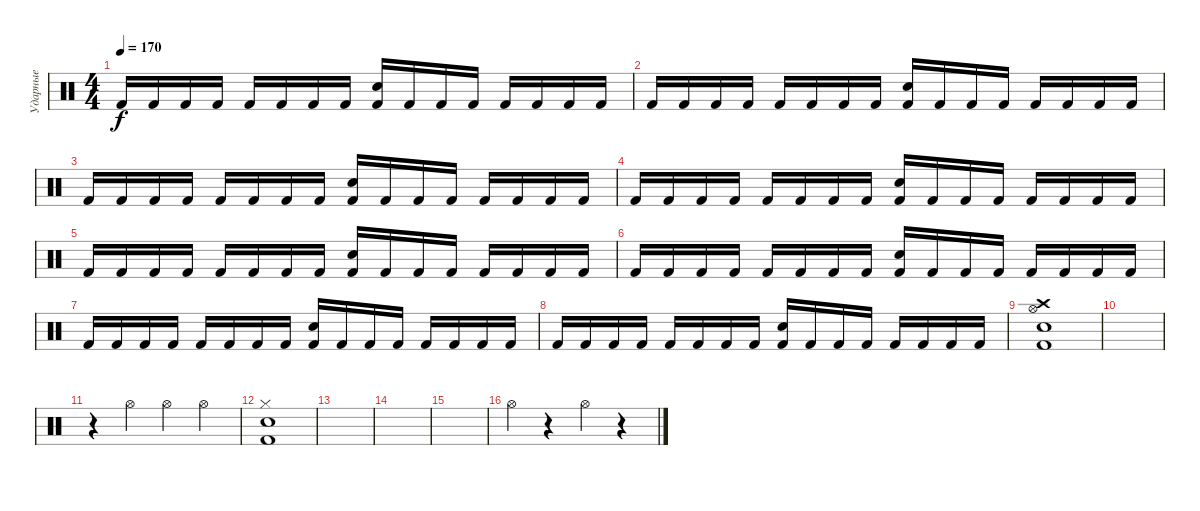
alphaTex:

\track ("Ударные" "Ударные") {instrument percussion}
\staff {score}
\articulation defaults
\ts (4 4)
\tempo 170
\clef neutral
\ks c "Kick (hit) 2".16{dy f} "Kick (hit) 2".16 "Kick (hit) 2".16 "Kick (hit) 2".16 "Kick (hit) 2".16 "Kick (hit) 2".16 "Kick (hit) 2".16 "Kick (hit) 2".16
("Snare (hit) 2" "Kick (hit) 2").16 "Kick (hit) 2".16 "Kick (hit) 2".16 "Kick (hit) 2".16 "Kick (hit) 2".16 "Kick (hit) 2".16 "Kick (hit) 2".16 "Kick (hit) 2".16 |
"Kick (hit) 2".16 "Kick (hit) 2".16 "Kick (hit) 2".16 "Kick (hit) 2".16 "Kick (hit) 2".16 "Kick (hit) 2".16 "Kick (hit) 2".16 "Kick (hit) 2".16 ("Snare (hit) 2" "Kick (hit) 2").16 "Kick (hit) 2".16 "Kick (hit) 2".16 "Kick (hit) 2".16 "Kick (hit) 2".16 "Kick (hit) 2".16 "Kick (hit) 2".16 "Kick (hit) 2".16 |
"Kick (hit) 2".16 "Kick (hit) 2".16 "Kick (hit) 2".16 "Kick (hit) 2".16 "Kick (hit) 2".16 "Kick (hit) 2".16 "Kick (hit) 2".16 "Kick (hit) 2".16 ("Snare (hit) 2" "Kick (hit) 2").16 "Kick (hit) 2".16 "Kick (hit) 2".16 "Kick (hit) 2".16 "Kick (hit) 2".16 "Kick (hit) 2".16 "Kick (hit) 2".16 "Kick (hit) 2".16 |
"Kick (hit) 2".16 "Kick (hit) 2".16 "Kick (hit) 2".16 "Kick (hit) 2".16 "Kick (hit) 2".16 "Kick (hit) 2".16 "Kick (hit) 2".16 "Kick (hit) 2".16 ("Snare (hit) 2" "Kick (hit) 2").16 "Kick (hit) 2".16 "Kick (hit) 2".16 "Kick (hit) 2".16 "Kick (hit) 2".16 "Kick (hit) 2".16 "Kick (hit) 2".16 "Kick (hit) 2".16 |
"Kick (hit) 2".16 "Kick (hit) 2".16 "Kick (hit) 2".16 "Kick (hit) 2".16 "Kick (hit) 2".16 "Kick (hit) 2".16 "Kick (hit) 2".16 "Kick (hit) 2".16 ("Snare (hit) 2" "Kick (hit) 2").16 "Kick (hit) 2".16 "Kick (hit) 2".16 "Kick (hit) 2".16 "Kick (hit) 2".16 "Kick (hit) 2".16 "Kick (hit) 2".16 "Kick (hit) 2".16 |
"Kick (hit) 2".16 "Kick (hit) 2".16 "Kick (hit) 2".16 "Kick (hit) 2".16 "Kick (hit) 2".16 "Kick (hit) 2".16 "Kick (hit) 2".16 "Kick (hit) 2".16 ("Snare (hit) 2" "Kick (hit) 2").16 "Kick (hit) 2".16 "Kick (hit) 2".16 "Kick (hit) 2".16 "Kick (hit) 2".16 "Kick (hit) 2".16 "Kick (hit) 2".16 "Kick (hit) 2".16 |
"Kick (hit) 2".16 "Kick (hit) 2".16 "Kick (hit) 2".16 "Kick (hit) 2".16 "Kick (hit) 2".16 "Kick (hit) 2".16 "Kick (hit) 2".16 "Kick (hit) 2".16 ("Snare (hit) 2" "Kick (hit) 2").16 "Kick (hit) 2".16 "Kick (hit) 2".16 "Kick (hit) 2".16 "Kick (hit) 2".16 "Kick (hit) 2".16 "Kick (hit) 2".16 "Kick (hit) 2".16 |
"Kick (hit) 2".16 "Kick (hit) 2".16 "Kick (hit) 2".16 "Kick (hit) 2".16 "Kick (hit) 2".16 "Kick (hit) 2".16 "Kick (hit) 2".16 "Kick (hit) 2".16 ("Snare (hit) 2" "Kick (hit) 2").16 "Kick (hit) 2".16 "Kick (hit) 2".16 "Kick (hit) 2".16 "Kick (hit) 2".16 "Kick (hit) 2".16 "Kick (hit) 2".16 "Kick (hit) 2".16 |
("Crash high (hit)" "Hi-Hat (open)" "Snare (hit) 2" "Kick (hit) 2").1 |
|
r.4 "Hi-Hat (open)".4 "Hi-Hat (open)".4 "Hi-Hat (open)".4 |
("Hi-Hat (closed)" "Snare (hit) 2" "Kick (hit) 2").1 |
|
|
|
"Hi-Hat (open)".4 r.4 "Hi-Hat (open)".4 r.4
